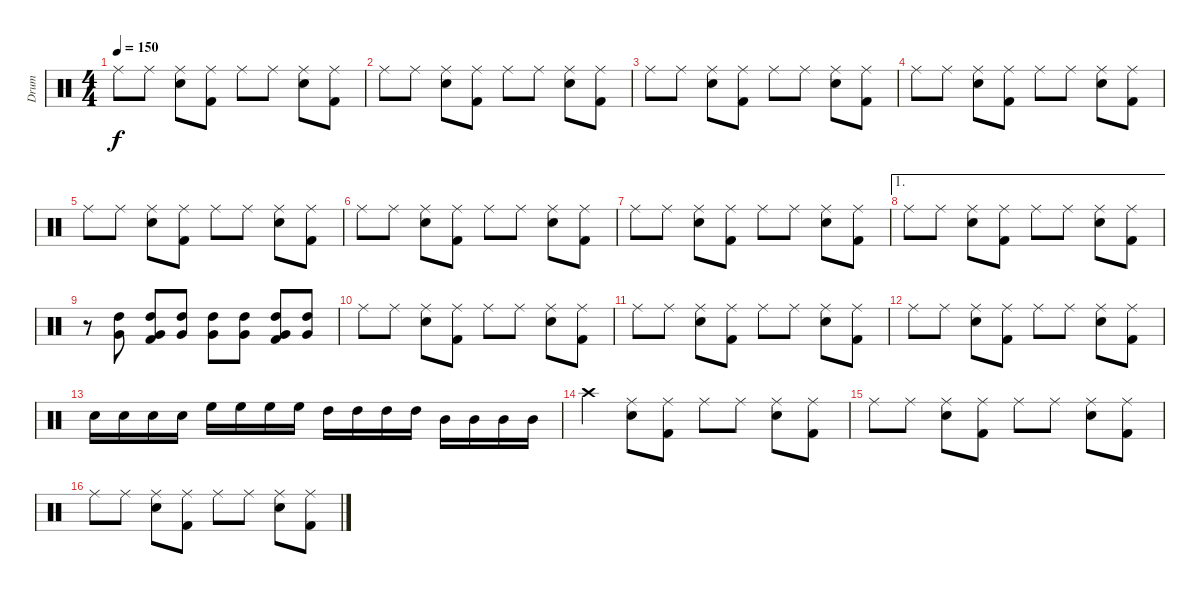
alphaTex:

\track ("Drum" "Drum") {instrument percussion}
\staff {score}
\articulation defaults
\ts (4 4)
\tempo 150
\clef neutral
\ks c "Ride (middle)".8{dy f} "Ride (middle)".8
("Ride (middle)" "Snare (hit) 2").8 ("Ride (middle)" "Kick (hit) 2").8 "Ride (middle)".8 "Ride (middle)".8 ("Ride (middle)" "Snare (hit) 2").8 ("Ride (middle)" "Kick (hit) 2").8 |
"Ride (middle)".8 "Ride (middle)".8 ("Ride (middle)" "Snare (hit) 2").8 ("Ride (middle)" "Kick (hit) 2").8 "Ride (middle)".8 "Ride (middle)".8 ("Ride (middle)" "Snare (hit) 2").8 ("Ride (middle)" "Kick (hit) 2").8 |
"Ride (middle)".8 "Ride (middle)".8 ("Ride (middle)" "Snare (hit) 2").8 ("Ride (middle)" "Kick (hit) 2").8 "Ride (middle)".8 "Ride (middle)".8 ("Ride (middle)" "Snare (hit) 2").8 ("Ride (middle)" "Kick (hit) 2").8 |
"Ride (middle)".8 "Ride (middle)".8 ("Ride (middle)" "Snare (hit) 2").8 ("Ride (middle)" "Kick (hit) 2").8 "Ride (middle)".8 "Ride (middle)".8 ("Ride (middle)" "Snare (hit) 2").8 ("Ride (middle)" "Kick (hit) 2").8 |
"Ride (middle)".8 "Ride (middle)".8 ("Ride (middle)" "Snare (hit) 2").8 ("Ride (middle)" "Kick (hit) 2").8 "Ride (middle)".8 "Ride (middle)".8 ("Ride (middle)" "Snare (hit) 2").8 ("Ride (middle)" "Kick (hit) 2").8 |
"Ride (middle)".8 "Ride (middle)".8 ("Ride (middle)" "Snare (hit) 2").8 ("Ride (middle)" "Kick (hit) 2").8 "Ride (middle)".8 "Ride (middle)".8 ("Ride (middle)" "Snare (hit) 2").8 ("Ride (middle)" "Kick (hit) 2").8 |
"Ride (middle)".8 "Ride (middle)".8 ("Ride (middle)" "Snare (hit) 2").8 ("Ride (middle)" "Kick (hit) 2").8 "Ride (middle)".8 "Ride (middle)".8 ("Ride (middle)" "Snare (hit) 2").8 ("Ride (middle)" "Kick (hit) 2").8 |
\ae 1 "Ride (middle)".8 "Ride (middle)".8
("Ride (middle)" "Snare (hit) 2").8 ("Ride (middle)" "Kick (hit) 2").8 "Ride (middle)".8 "Ride (middle)".8 ("Ride (middle)" "Snare (hit) 2").8 ("Ride (middle)" "Kick (hit) 2").8 |
r.8 ("Very Low Tom (hit)" "High Tom (hit)").8 ("Very Low Tom (hit)" "High Tom (hit)" "Kick (hit) 2").8 ("Very Low Tom (hit)" "High Tom (hit)").8 ("Very Low Tom (hit)" "High Tom (hit)").8 ("Very Low Tom (hit)" "High Tom (hit)").8 ("Very Low Tom (hit)" "High Tom (hit)" "Kick (hit) 2").8 ("Very Low Tom (hit)" "High Tom (hit)").8 |
"Ride (middle)".8 "Ride (middle)".8 ("Ride (middle)" "Snare (hit) 2").8 ("Ride (middle)" "Kick (hit) 2").8 "Ride (middle)".8 "Ride (middle)".8 ("Ride (middle)" "Snare (hit) 2").8 ("Ride (middle)" "Kick (hit) 2").8 |
"Ride (middle)".8 "Ride (middle)".8 ("Ride (middle)" "Snare (hit) 2").8 ("Ride (middle)" "Kick (hit) 2").8 "Ride (middle)".8 "Ride (middle)".8 ("Ride (middle)" "Snare (hit) 2").8 ("Ride (middle)" "Kick (hit) 2").8 |
"Ride (middle)".8 "Ride (middle)".8 ("Ride (middle)" "Snare (hit) 2").8 ("Ride (middle)" "Kick (hit) 2").8 "Ride (middle)".8 "Ride (middle)".8 ("Ride (middle)" "Snare (hit) 2").8 ("Ride (middle)" "Kick (hit) 2").8 |
"Snare (hit) 2".16 "Snare (hit) 2".16 "Snare (hit) 2".16 "Snare (hit) 2".16 "High Floor Tom (hit)".16 "High Floor Tom (hit)".16 "High Floor Tom (hit)".16 "High Floor Tom (hit)".16 "High Tom (hit)".16 "High Tom (hit)".16 "High Tom (hit)".16 "High Tom (hit)".16 "Mid Tom (hit)".16 "Mid Tom (hit)".16 "Mid Tom (hit)".16 "Mid Tom (hit)".16 |
"Crash high (hit)".4 ("Ride (middle)" "Snare (hit) 2").8 ("Ride (middle)" "Kick (hit) 2").8 "Ride (middle)".8 "Ride (middle)".8 ("Ride (middle)" "Snare (hit) 2").8 ("Ride (middle)" "Kick (hit) 2").8 |
"Ride (middle)".8 "Ride (middle)".8 ("Ride (middle)" "Snare (hit) 2").8 ("Ride (middle)" "Kick (hit) 2").8 "Ride (middle)".8 "Ride (middle)".8 ("Ride (middle)" "Snare (hit) 2").8 ("Ride (middle)" "Kick (hit) 2").8 |
"Ride (middle)".8 "Ride (middle)".8 ("Ride (middle)" "Snare (hit) 2").8 ("Ride (middle)" "Kick (hit) 2").8 "Ride (middle)".8 "Ride (middle)".8 ("Ride (middle)" "Snare (hit) 2").8 ("Ride (middle)" "Kick (hit) 2").8
